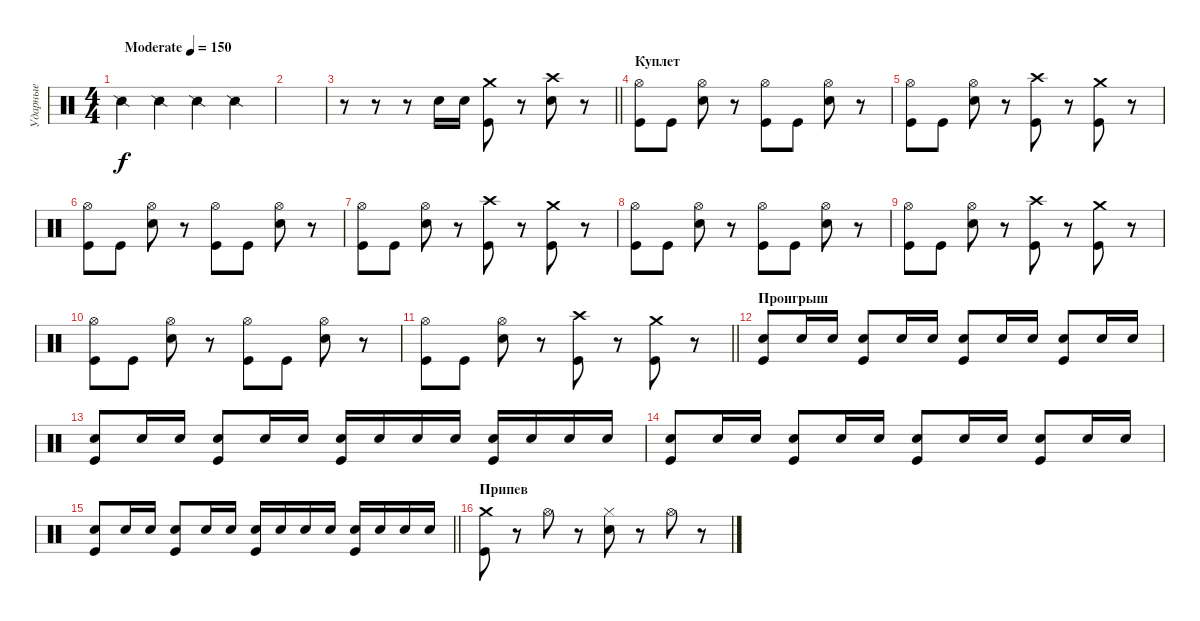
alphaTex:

\track ("Ударные" "Ударные") {instrument percussion}
\staff {score}
\articulation defaults
\ts (4 4)
\tempo (150 "Moderate")
\clef neutral
\ks c "Snare (side stick) 2".4{dy f} "Snare (side stick) 2".4 "Snare (side stick) 2".4 "Snare (side stick) 2".4
|
|
\barLineRight lightlight
r.8 r.8 r.8 "Electric Snare (hit)".16 "Electric Snare (hit)".16 ("Crash medium (hit)" "Kick (hit)").8 r.8 ("Crash high (hit)" "Electric Snare (hit)").8 r.8 |
\section ("" "Куплет")
("Hi-Hat (open)" "Kick (hit)").8 "Kick (hit)".8 ("Hi-Hat (open)" "Electric Snare (hit)").8 r.8 ("Hi-Hat (open)" "Kick (hit)").8 "Kick (hit)".8 ("Hi-Hat (open)" "Electric Snare (hit)").8 r.8 |
("Hi-Hat (open)" "Kick (hit)").8 "Kick (hit)".8 ("Hi-Hat (open)" "Electric Snare (hit)").8 r.8 ("Crash high (hit)" "Kick (hit)").8 r.8 ("Crash medium (hit)" "Kick (hit)").8 r.8 |
("Hi-Hat (open)" "Kick (hit)").8 "Kick (hit)".8 ("Hi-Hat (open)" "Electric Snare (hit)").8 r.8 ("Hi-Hat (open)" "Kick (hit)").8 "Kick (hit)".8 ("Hi-Hat (open)" "Electric Snare (hit)").8 r.8 |
("Hi-Hat (open)" "Kick (hit)").8 "Kick (hit)".8 ("Hi-Hat (open)" "Electric Snare (hit)").8 r.8 ("Crash high (hit)" "Kick (hit)").8 r.8 ("Crash medium (hit)" "Kick (hit)").8 r.8 |
("Hi-Hat (open)" "Kick (hit)").8 "Kick (hit)".8 ("Hi-Hat (open)" "Electric Snare (hit)").8 r.8 ("Hi-Hat (open)" "Kick (hit)").8 "Kick (hit)".8 ("Hi-Hat (open)" "Electric Snare (hit)").8 r.8 |
("Hi-Hat (open)" "Kick (hit)").8 "Kick (hit)".8 ("Hi-Hat (open)" "Electric Snare (hit)").8 r.8 ("Crash high (hit)" "Kick (hit)").8 r.8 ("Crash medium (hit)" "Kick (hit)").8 r.8 |
("Hi-Hat (open)" "Kick (hit)").8 "Kick (hit)".8 ("Hi-Hat (open)" "Electric Snare (hit)").8 r.8 ("Hi-Hat (open)" "Kick (hit)").8 "Kick (hit)".8 ("Hi-Hat (open)" "Electric Snare (hit)").8 r.8 |
\barLineRight lightlight
("Hi-Hat (open)" "Kick (hit)").8 "Kick (hit)".8 ("Hi-Hat (open)" "Electric Snare (hit)").8 r.8 ("Crash high (hit)" "Kick (hit)").8 r.8 ("Crash medium (hit)" "Kick (hit)").8 r.8 |
\section ("" "Проигрыш")
("Electric Snare (hit)" "Kick (hit)").8 "Electric Snare (hit)".16 "Electric Snare (hit)".16 ("Electric Snare (hit)" "Kick (hit)").8 "Electric Snare (hit)".16 "Electric Snare (hit)".16 ("Electric Snare (hit)" "Kick (hit)").8 "Electric Snare (hit)".16 "Electric Snare (hit)".16 ("Electric Snare (hit)" "Kick (hit)").8 "Electric Snare (hit)".16 "Electric Snare (hit)".16 |
("Electric Snare (hit)" "Kick (hit)").8 "Electric Snare (hit)".16 "Electric Snare (hit)".16 ("Electric Snare (hit)" "Kick (hit)").8 "Electric Snare (hit)".16 "Electric Snare (hit)".16 ("Electric Snare (hit)" "Kick (hit)").16 "Electric Snare (hit)".16 "Electric Snare (hit)".16 "Electric Snare (hit)".16 ("Electric Snare (hit)" "Kick (hit)").16 "Electric Snare (hit)".16 "Electric Snare (hit)".16 "Electric Snare (hit)".16 |
("Electric Snare (hit)" "Kick (hit)").8 "Electric Snare (hit)".16 "Electric Snare (hit)".16 ("Electric Snare (hit)" "Kick (hit)").8 "Electric Snare (hit)".16 "Electric Snare (hit)".16 ("Electric Snare (hit)" "Kick (hit)").8 "Electric Snare (hit)".16 "Electric Snare (hit)".16 ("Electric Snare (hit)" "Kick (hit)").8 "Electric Snare (hit)".16 "Electric Snare (hit)".16 |
\barLineRight lightlight
("Electric Snare (hit)" "Kick (hit)").8 "Electric Snare (hit)".16 "Electric Snare (hit)".16 ("Electric Snare (hit)" "Kick (hit)").8 "Electric Snare (hit)".16 "Electric Snare (hit)".16 ("Electric Snare (hit)" "Kick (hit)").16 "Electric Snare (hit)".16 "Electric Snare (hit)".16 "Electric Snare (hit)".16 ("Electric Snare (hit)" "Kick (hit)").16 "Electric Snare (hit)".16 "Electric Snare (hit)".16 "Electric Snare (hit)".16 |
\section ("" "Припев")
("Crash medium (hit)" "Kick (hit)").8 r.8 "Hi-Hat (open)".8 r.8 ("Hi-Hat (closed)" "Electric Snare (hit)").8 r.8 "Hi-Hat (open)".8 r.8
